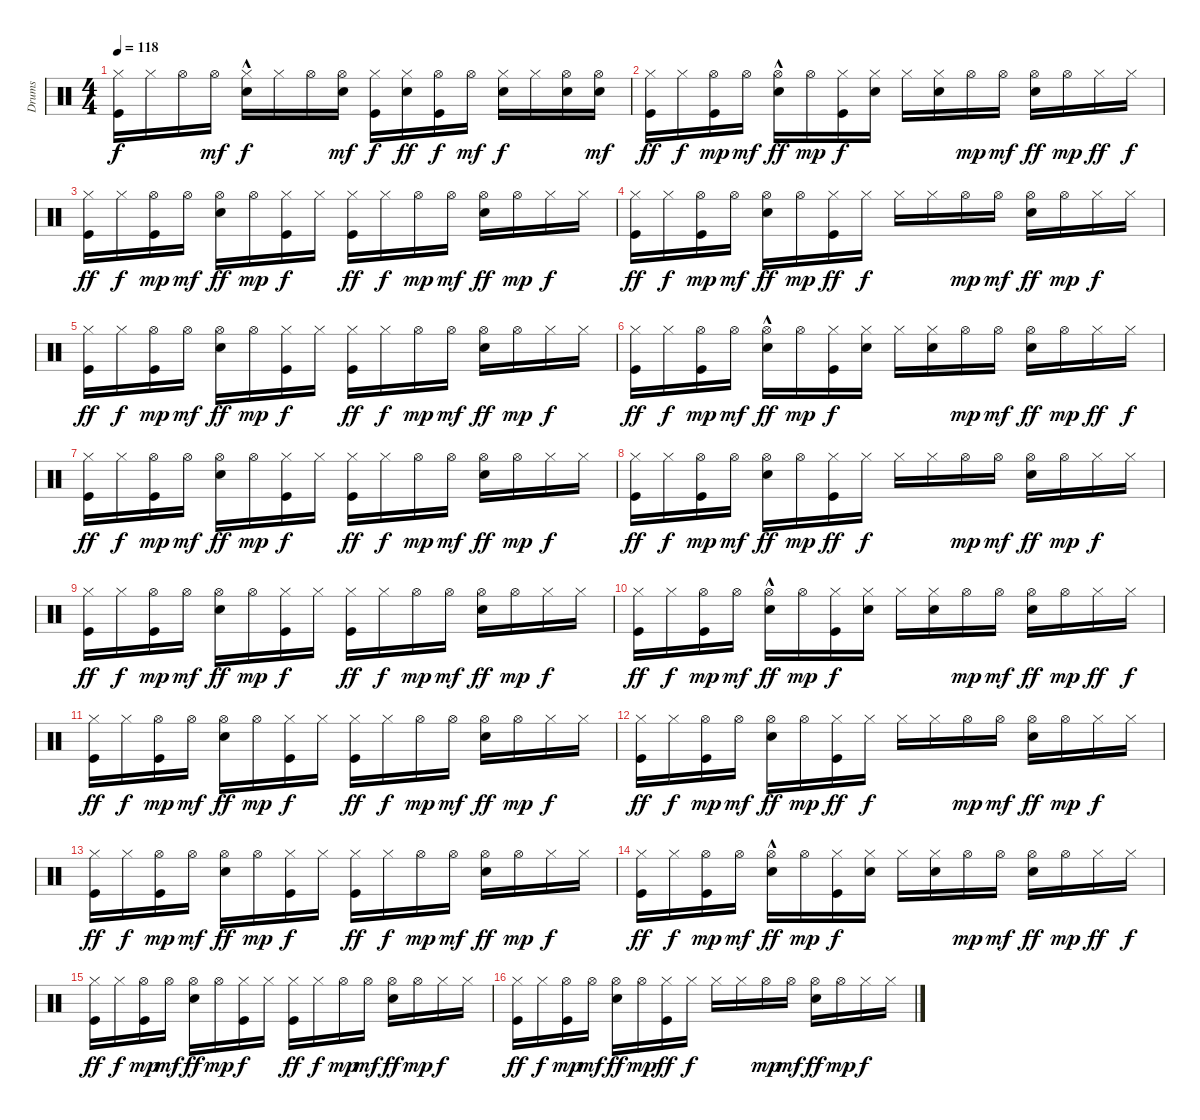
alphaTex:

\track ("Drums" "Drums") {instrument percussion}
\staff {score}
\articulation defaults
\ts (4 4)
\tempo 118
\clef neutral
\ks c
("Hi-Hat (closed)" "Kick (hit)").16{dy f} "Hi-Hat (closed)".16 "Hi-Hat (open)".16 "Hi-Hat (open)".16{dy mf} ("Hi-Hat (closed)" "Electric Snare (hit)"{hac}).16{dy f} "Hi-Hat (closed)".16 "Hi-Hat (open)".16 ("Electric Snare (hit)" "Hi-Hat (open)").16{dy mf} ("Hi-Hat (closed)" "Kick (hit)").16{dy f} ("Electric Snare (hit)" "Hi-Hat (closed)").16{dy ff} ("Hi-Hat (open)" "Kick (hit)").16{dy f} "Hi-Hat (open)".16{dy mf} ("Electric Snare (hit)" "Hi-Hat (closed)").16{dy f} "Hi-Hat (closed)".16 ("Hi-Hat (open)" "Electric Snare (hit)").16 ("Hi-Hat (open)" "Electric Snare (hit)").16{dy mf} |
("Kick (hit)" "Hi-Hat (closed)").16{dy ff} "Hi-Hat (closed)".16{dy f} ("Kick (hit)" "Hi-Hat (open)").16{dy mp} "Hi-Hat (open)".16{dy mf} ("Electric Snare (hit)"{hac} "Hi-Hat (open)").16{dy ff} "Hi-Hat (open)".16{dy mp} ("Kick (hit)" "Hi-Hat (closed)").16{dy f} ("Electric Snare (hit)" "Hi-Hat (closed)").16 "Hi-Hat (closed)".16 ("Electric Snare (hit)" "Hi-Hat (closed)").16 "Hi-Hat (open)".16{dy mp} "Hi-Hat (open)".16{dy mf} ("Hi-Hat (open)" "Electric Snare (hit)").16{dy ff} "Hi-Hat (open)".16{dy mp} "Hi-Hat (closed)".16{dy ff} "Hi-Hat (closed)".16{dy f} |
("Kick (hit)" "Hi-Hat (closed)").16{dy ff} "Hi-Hat (closed)".16{dy f} ("Kick (hit)" "Hi-Hat (open)").16{dy mp} "Hi-Hat (open)".16{dy mf} ("Electric Snare (hit)" "Hi-Hat (open)").16{dy ff} "Hi-Hat (open)".16{dy mp} ("Kick (hit)" "Hi-Hat (closed)").16{dy f} "Hi-Hat (closed)".16 ("Kick (hit)" "Hi-Hat (closed)").16{dy ff} "Hi-Hat (closed)".16{dy f} "Hi-Hat (open)".16{dy mp} "Hi-Hat (open)".16{dy mf} ("Electric Snare (hit)" "Hi-Hat (open)").16{dy ff} "Hi-Hat (open)".16{dy mp} "Hi-Hat (closed)".16{dy f} "Hi-Hat (closed)".16 |
("Kick (hit)" "Hi-Hat (closed)").16{dy ff} "Hi-Hat (closed)".16{dy f} ("Kick (hit)" "Hi-Hat (open)").16{dy mp} "Hi-Hat (open)".16{dy mf} ("Electric Snare (hit)" "Hi-Hat (open)").16{dy ff} "Hi-Hat (open)".16{dy mp} ("Kick (hit)" "Hi-Hat (closed)").16{dy ff} "Hi-Hat (closed)".16{dy f} "Hi-Hat (closed)".16 "Hi-Hat (closed)".16 "Hi-Hat (open)".16{dy mp} "Hi-Hat (open)".16{dy mf} ("Electric Snare (hit)" "Hi-Hat (open)").16{dy ff} "Hi-Hat (open)".16{dy mp} "Hi-Hat (closed)".16{dy f} "Hi-Hat (closed)".16 |
("Kick (hit)" "Hi-Hat (closed)").16{dy ff} "Hi-Hat (closed)".16{dy f} ("Kick (hit)" "Hi-Hat (open)").16{dy mp} "Hi-Hat (open)".16{dy mf} ("Electric Snare (hit)" "Hi-Hat (open)").16{dy ff} "Hi-Hat (open)".16{dy mp} ("Kick (hit)" "Hi-Hat (closed)").16{dy f} "Hi-Hat (closed)".16 ("Kick (hit)" "Hi-Hat (closed)").16{dy ff} "Hi-Hat (closed)".16{dy f} "Hi-Hat (open)".16{dy mp} "Hi-Hat (open)".16{dy mf} ("Electric Snare (hit)" "Hi-Hat (open)").16{dy ff} "Hi-Hat (open)".16{dy mp} "Hi-Hat (closed)".16{dy f} "Hi-Hat (closed)".16 |
("Kick (hit)" "Hi-Hat (closed)").16{dy ff} "Hi-Hat (closed)".16{dy f} ("Kick (hit)" "Hi-Hat (open)").16{dy mp} "Hi-Hat (open)".16{dy mf} ("Electric Snare (hit)"{hac} "Hi-Hat (open)").16{dy ff} "Hi-Hat (open)".16{dy mp} ("Kick (hit)" "Hi-Hat (closed)").16{dy f} ("Electric Snare (hit)" "Hi-Hat (closed)").16 "Hi-Hat (closed)".16 ("Electric Snare (hit)" "Hi-Hat (closed)").16 "Hi-Hat (open)".16{dy mp} "Hi-Hat (open)".16{dy mf} ("Hi-Hat (open)" "Electric Snare (hit)").16{dy ff} "Hi-Hat (open)".16{dy mp} "Hi-Hat (closed)".16{dy ff} "Hi-Hat (closed)".16{dy f} |
("Kick (hit)" "Hi-Hat (closed)").16{dy ff} "Hi-Hat (closed)".16{dy f} ("Kick (hit)" "Hi-Hat (open)").16{dy mp} "Hi-Hat (open)".16{dy mf} ("Electric Snare (hit)" "Hi-Hat (open)").16{dy ff} "Hi-Hat (open)".16{dy mp} ("Kick (hit)" "Hi-Hat (closed)").16{dy f} "Hi-Hat (closed)".16 ("Kick (hit)" "Hi-Hat (closed)").16{dy ff} "Hi-Hat (closed)".16{dy f} "Hi-Hat (open)".16{dy mp} "Hi-Hat (open)".16{dy mf} ("Electric Snare (hit)" "Hi-Hat (open)").16{dy ff} "Hi-Hat (open)".16{dy mp} "Hi-Hat (closed)".16{dy f} "Hi-Hat (closed)".16 |
("Kick (hit)" "Hi-Hat (closed)").16{dy ff} "Hi-Hat (closed)".16{dy f} ("Kick (hit)" "Hi-Hat (open)").16{dy mp} "Hi-Hat (open)".16{dy mf} ("Electric Snare (hit)" "Hi-Hat (open)").16{dy ff} "Hi-Hat (open)".16{dy mp} ("Kick (hit)" "Hi-Hat (closed)").16{dy ff} "Hi-Hat (closed)".16{dy f} "Hi-Hat (closed)".16 "Hi-Hat (closed)".16 "Hi-Hat (open)".16{dy mp} "Hi-Hat (open)".16{dy mf} ("Electric Snare (hit)" "Hi-Hat (open)").16{dy ff} "Hi-Hat (open)".16{dy mp} "Hi-Hat (closed)".16{dy f} "Hi-Hat (closed)".16 |
("Kick (hit)" "Hi-Hat (closed)").16{dy ff} "Hi-Hat (closed)".16{dy f} ("Kick (hit)" "Hi-Hat (open)").16{dy mp} "Hi-Hat (open)".16{dy mf} ("Electric Snare (hit)" "Hi-Hat (open)").16{dy ff} "Hi-Hat (open)".16{dy mp} ("Kick (hit)" "Hi-Hat (closed)").16{dy f} "Hi-Hat (closed)".16 ("Kick (hit)" "Hi-Hat (closed)").16{dy ff} "Hi-Hat (closed)".16{dy f} "Hi-Hat (open)".16{dy mp} "Hi-Hat (open)".16{dy mf} ("Electric Snare (hit)" "Hi-Hat (open)").16{dy ff} "Hi-Hat (open)".16{dy mp} "Hi-Hat (closed)".16{dy f} "Hi-Hat (closed)".16 |
("Kick (hit)" "Hi-Hat (closed)").16{dy ff} "Hi-Hat (closed)".16{dy f} ("Kick (hit)" "Hi-Hat (open)").16{dy mp} "Hi-Hat (open)".16{dy mf} ("Electric Snare (hit)"{hac} "Hi-Hat (open)").16{dy ff} "Hi-Hat (open)".16{dy mp} ("Kick (hit)" "Hi-Hat (closed)").16{dy f} ("Electric Snare (hit)" "Hi-Hat (closed)").16 "Hi-Hat (closed)".16 ("Electric Snare (hit)" "Hi-Hat (closed)").16 "Hi-Hat (open)".16{dy mp} "Hi-Hat (open)".16{dy mf} ("Hi-Hat (open)" "Electric Snare (hit)").16{dy ff} "Hi-Hat (open)".16{dy mp} "Hi-Hat (closed)".16{dy ff} "Hi-Hat (closed)".16{dy f} |
("Kick (hit)" "Hi-Hat (closed)").16{dy ff} "Hi-Hat (closed)".16{dy f} ("Kick (hit)" "Hi-Hat (open)").16{dy mp} "Hi-Hat (open)".16{dy mf} ("Electric Snare (hit)" "Hi-Hat (open)").16{dy ff} "Hi-Hat (open)".16{dy mp} ("Kick (hit)" "Hi-Hat (closed)").16{dy f} "Hi-Hat (closed)".16 ("Kick (hit)" "Hi-Hat (closed)").16{dy ff} "Hi-Hat (closed)".16{dy f} "Hi-Hat (open)".16{dy mp} "Hi-Hat (open)".16{dy mf} ("Electric Snare (hit)" "Hi-Hat (open)").16{dy ff} "Hi-Hat (open)".16{dy mp} "Hi-Hat (closed)".16{dy f} "Hi-Hat (closed)".16 |
("Kick (hit)" "Hi-Hat (closed)").16{dy ff} "Hi-Hat (closed)".16{dy f} ("Kick (hit)" "Hi-Hat (open)").16{dy mp} "Hi-Hat (open)".16{dy mf} ("Electric Snare (hit)" "Hi-Hat (open)").16{dy ff} "Hi-Hat (open)".16{dy mp} ("Kick (hit)" "Hi-Hat (closed)").16{dy ff} "Hi-Hat (closed)".16{dy f} "Hi-Hat (closed)".16 "Hi-Hat (closed)".16 "Hi-Hat (open)".16{dy mp} "Hi-Hat (open)".16{dy mf} ("Electric Snare (hit)" "Hi-Hat (open)").16{dy ff} "Hi-Hat (open)".16{dy mp} "Hi-Hat (closed)".16{dy f} "Hi-Hat (closed)".16 |
("Kick (hit)" "Hi-Hat (closed)").16{dy ff} "Hi-Hat (closed)".16{dy f} ("Kick (hit)" "Hi-Hat (open)").16{dy mp} "Hi-Hat (open)".16{dy mf} ("Electric Snare (hit)" "Hi-Hat (open)").16{dy ff} "Hi-Hat (open)".16{dy mp} ("Kick (hit)" "Hi-Hat (closed)").16{dy f} "Hi-Hat (closed)".16 ("Kick (hit)" "Hi-Hat (closed)").16{dy ff} "Hi-Hat (closed)".16{dy f} "Hi-Hat (open)".16{dy mp} "Hi-Hat (open)".16{dy mf} ("Electric Snare (hit)" "Hi-Hat (open)").16{dy ff} "Hi-Hat (open)".16{dy mp} "Hi-Hat (closed)".16{dy f} "Hi-Hat (closed)".16 |
("Kick (hit)" "Hi-Hat (closed)").16{dy ff} "Hi-Hat (closed)".16{dy f} ("Kick (hit)" "Hi-Hat (open)").16{dy mp} "Hi-Hat (open)".16{dy mf} ("Electric Snare (hit)"{hac} "Hi-Hat (open)").16{dy ff} "Hi-Hat (open)".16{dy mp} ("Kick (hit)" "Hi-Hat (closed)").16{dy f} ("Electric Snare (hit)" "Hi-Hat (closed)").16 "Hi-Hat (closed)".16 ("Electric Snare (hit)" "Hi-Hat (closed)").16 "Hi-Hat (open)".16{dy mp} "Hi-Hat (open)".16{dy mf} ("Hi-Hat (open)" "Electric Snare (hit)").16{dy ff} "Hi-Hat (open)".16{dy mp} "Hi-Hat (closed)".16{dy ff} "Hi-Hat (closed)".16{dy f} |
("Kick (hit)" "Hi-Hat (closed)").16{dy ff} "Hi-Hat (closed)".16{dy f} ("Kick (hit)" "Hi-Hat (open)").16{dy mp} "Hi-Hat (open)".16{dy mf} ("Electric Snare (hit)" "Hi-Hat (open)").16{dy ff} "Hi-Hat (open)".16{dy mp} ("Kick (hit)" "Hi-Hat (closed)").16{dy f} "Hi-Hat (closed)".16 ("Kick (hit)" "Hi-Hat (closed)").16{dy ff} "Hi-Hat (closed)".16{dy f} "Hi-Hat (open)".16{dy mp} "Hi-Hat (open)".16{dy mf} ("Electric Snare (hit)" "Hi-Hat (open)").16{dy ff} "Hi-Hat (open)".16{dy mp} "Hi-Hat (closed)".16{dy f} "Hi-Hat (closed)".16 |
("Kick (hit)" "Hi-Hat (closed)").16{dy ff} "Hi-Hat (closed)".16{dy f} ("Kick (hit)" "Hi-Hat (open)").16{dy mp} "Hi-Hat (open)".16{dy mf} ("Electric Snare (hit)" "Hi-Hat (open)").16{dy ff} "Hi-Hat (open)".16{dy mp} ("Kick (hit)" "Hi-Hat (closed)").16{dy ff} "Hi-Hat (closed)".16{dy f} "Hi-Hat (closed)".16 "Hi-Hat (closed)".16 "Hi-Hat (open)".16{dy mp} "Hi-Hat (open)".16{dy mf} ("Electric Snare (hit)" "Hi-Hat (open)").16{dy ff} "Hi-Hat (open)".16{dy mp} "Hi-Hat (closed)".16{dy f} "Hi-Hat (closed)".16
